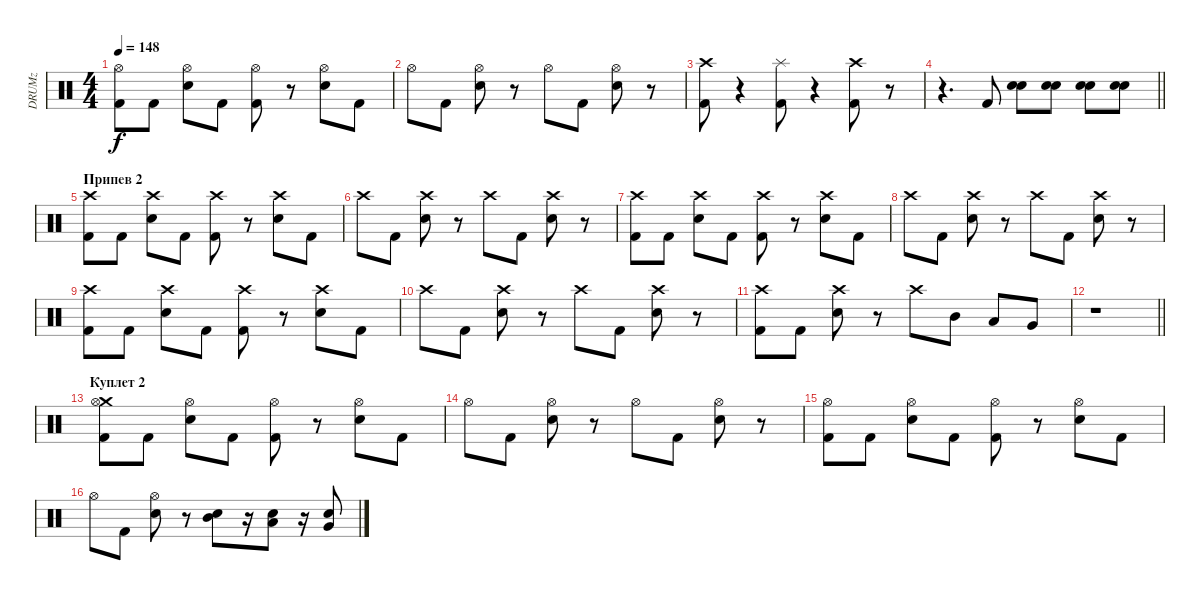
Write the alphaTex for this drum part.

\track ("DRUMz" "DRUMz") {instrument percussion}
\staff {score}
\articulation defaults
\ts (4 4)
\tempo 148
\clef neutral
\ks c
("Hi-Hat (open)" "Kick (hit) 2").8{dy f} "Kick (hit) 2".8 ("Hi-Hat (open)" "Snare (hit) 2").8 "Kick (hit) 2".8 ("Hi-Hat (open)" "Kick (hit) 2").8 r.8 ("Hi-Hat (open)" "Snare (hit) 2").8 "Kick (hit) 2".8 |
"Hi-Hat (open)".8 "Kick (hit) 2".8 ("Hi-Hat (open)" "Snare (hit) 2").8 r.8 "Hi-Hat (open)".8 "Kick (hit) 2".8 ("Hi-Hat (open)" "Snare (hit) 2").8 r.8 |
("Crash high (hit)" "Kick (hit) 2").8 r.4 ("Kick (hit) 2" "Splash (hit)").8 r.4 ("Crash high (hit)" "Kick (hit) 2").8 r.8 |
\barLineRight lightlight
r.4{d} "Kick (hit) 2".8 ("Snare (hit) 2" "Electric Snare (hit)").8 ("Snare (hit) 2" "Electric Snare (hit)").8 ("Snare (hit) 2" "Electric Snare (hit)").8 ("Snare (hit) 2" "Electric Snare (hit)").8 |
\section ("" "Припев 2")
("Crash high (hit)" "Kick (hit) 2").8 "Kick (hit) 2".8 ("Crash high (hit)" "Snare (hit) 2").8 "Kick (hit) 2".8 ("Crash high (hit)" "Kick (hit) 2").8 r.8 ("Crash high (hit)" "Snare (hit) 2").8 "Kick (hit) 2".8 |
"Crash high (hit)".8 "Kick (hit) 2".8 ("Crash high (hit)" "Snare (hit) 2").8 r.8 "Crash high (hit)".8 "Kick (hit) 2".8 ("Crash high (hit)" "Snare (hit) 2").8 r.8 |
("Crash high (hit)" "Kick (hit) 2").8 "Kick (hit) 2".8 ("Crash high (hit)" "Snare (hit) 2").8 "Kick (hit) 2".8 ("Crash high (hit)" "Kick (hit) 2").8 r.8 ("Crash high (hit)" "Snare (hit) 2").8 "Kick (hit) 2".8 |
"Crash high (hit)".8 "Kick (hit) 2".8 ("Crash high (hit)" "Snare (hit) 2").8 r.8 "Crash high (hit)".8 "Kick (hit) 2".8 ("Crash high (hit)" "Snare (hit) 2").8 r.8 |
("Crash high (hit)" "Kick (hit) 2").8 "Kick (hit) 2".8 ("Crash high (hit)" "Snare (hit) 2").8 "Kick (hit) 2".8 ("Crash high (hit)" "Kick (hit) 2").8 r.8 ("Crash high (hit)" "Snare (hit) 2").8 "Kick (hit) 2".8 |
"Crash high (hit)".8 "Kick (hit) 2".8 ("Crash high (hit)" "Snare (hit) 2").8 r.8 "Crash high (hit)".8 "Kick (hit) 2".8 ("Crash high (hit)" "Snare (hit) 2").8 r.8 |
("Crash high (hit)" "Kick (hit) 2").8 "Kick (hit) 2".8 ("Crash high (hit)" "Snare (hit) 2").8 r.8 "Crash high (hit)".8 "Mid Tom (hit)".8 "Low Tom (hit)".8 "Very Low Tom (hit)".8 |
\barLineRight lightlight
r.1 |
\section ("" "Куплет 2")
("Crash medium (hit)" "Hi-Hat (open)" "Kick (hit) 2").8 "Kick (hit) 2".8 ("Hi-Hat (open)" "Snare (hit) 2").8 "Kick (hit) 2".8 ("Hi-Hat (open)" "Kick (hit) 2").8 r.8 ("Hi-Hat (open)" "Snare (hit) 2").8 "Kick (hit) 2".8 |
"Hi-Hat (open)".8 "Kick (hit) 2".8 ("Hi-Hat (open)" "Snare (hit) 2").8 r.8 "Hi-Hat (open)".8 "Kick (hit) 2".8 ("Hi-Hat (open)" "Snare (hit) 2").8 r.8 |
("Hi-Hat (open)" "Kick (hit) 2").8 "Kick (hit) 2".8 ("Hi-Hat (open)" "Snare (hit) 2").8 "Kick (hit) 2".8 ("Hi-Hat (open)" "Kick (hit) 2").8 r.8 ("Hi-Hat (open)" "Snare (hit) 2").8 "Kick (hit) 2".8 |
"Hi-Hat (open)".8 "Kick (hit) 2".8 ("Hi-Hat (open)" "Snare (hit) 2").8 r.8 ("Electric Snare (hit)" "Mid Tom (hit)").8 r.16 ("Snare (hit) 2" "Low Tom (hit)").8 r.16 ("Snare (hit) 2" "Very Low Tom (hit)").8
